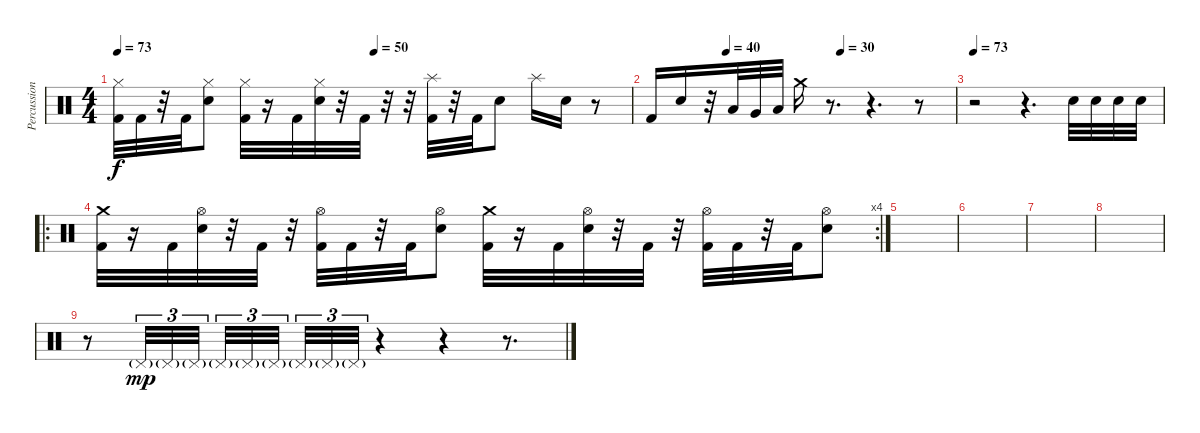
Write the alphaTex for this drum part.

\track ("Percussion" "Percussion") {instrument percussion}
\staff {score}
\articulation defaults
\ts (4 4)
\tempo 73
\tempo (50 0.5)
\clef neutral
\ks c
("Hi-Hat (closed)" "Kick (hit) 2").32{dy f} "Kick (hit) 2".32 r.32 "Kick (hit) 2".32 ("Hi-Hat (closed)" "Electric Snare (hit)").8 ("Hi-Hat (closed)" "Kick (hit) 2").32 r.16 "Kick (hit) 2".32 ("Hi-Hat (closed)" "Electric Snare (hit)").32 r.32 "Kick (hit) 2".32 r.32 r.32 ("Splash (hit)" "Kick (hit) 2").32 r.32 "Kick (hit) 2".32 "Electric Snare (hit)".8 "Splash (hit)".16 "Electric Snare (hit)".16 r.8 |
\tempo (40 0.25)
\tempo (30 0.625)
"Kick (hit) 2".16 "Electric Snare (hit)".16 r.32 "Low Tom (hit)".32 "Very Low Tom (hit)".32 "Low Floor Tom (hit)".32 "Crash medium (hit)".16 r.8{d} r.4{d} r.8 |
\tempo 73
r.2 r.4{d} "Electric Snare (hit)".32 "Electric Snare (hit)".32 "Electric Snare (hit)".32 "Electric Snare (hit)".32 |
\ro
\rc 4
("Crash medium (hit)" "Kick (hit) 2").32 r.16 "Kick (hit) 2".32 ("Hi-Hat (open)" "Electric Snare (hit)").32 r.32 "Kick (hit) 2".32 r.32 ("Hi-Hat (open)" "Kick (hit) 2").32 "Kick (hit) 2".32 r.32 "Kick (hit) 2".32 ("Hi-Hat (open)" "Electric Snare (hit)").8 ("Crash medium (hit)" "Kick (hit) 2").32 r.16 "Kick (hit) 2".32 ("Hi-Hat (open)" "Electric Snare (hit)").32 r.32 "Kick (hit) 2".32 r.32 ("Hi-Hat (open)" "Kick (hit) 2").32 "Kick (hit) 2".32 r.32 "Kick (hit) 2".32 ("Hi-Hat (open)" "Electric Snare (hit)").8 |
|
|
|
|
r.8 "Pedal Hi-Hat (hit)"{g}.32{tu (3 2) dy mp volume 8} "Pedal Hi-Hat (hit)"{g}.32{tu (3 2)} "Pedal Hi-Hat (hit)"{g}.32{tu (3 2) beam splitsecondary} "Pedal Hi-Hat (hit)"{g}.32{tu (3 2)} "Pedal Hi-Hat (hit)"{g}.32{tu (3 2)} "Pedal Hi-Hat (hit)"{g}.32{tu (3 2)} "Pedal Hi-Hat (hit)"{g}.32{tu (3 2)} "Pedal Hi-Hat (hit)"{g}.32{tu (3 2)} "Pedal Hi-Hat (hit)"{g}.32{tu (3 2)} r.4 r.4 r.8{d}
